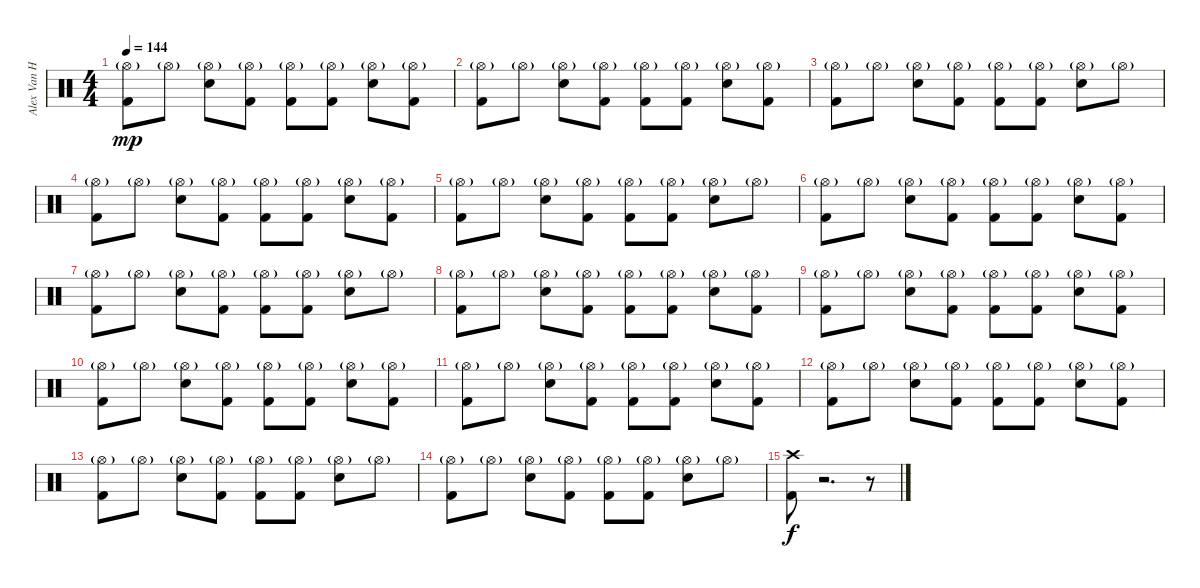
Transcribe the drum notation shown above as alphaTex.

\track ("Alex Van Halen" "Alex Van H") {instrument percussion}
\staff {score}
\articulation defaults
\ts (4 4)
\tempo 144
\clef neutral
\ks c
("Hi-Hat (open)"{g} "Kick (hit) 2").8{dy mp} "Hi-Hat (open)"{g}.8 ("Hi-Hat (open)"{g} "Electric Snare (hit)").8 ("Hi-Hat (open)"{g} "Kick (hit) 2").8 ("Hi-Hat (open)"{g} "Kick (hit) 2").8 ("Hi-Hat (open)"{g} "Kick (hit) 2").8 ("Hi-Hat (open)"{g} "Electric Snare (hit)").8 ("Hi-Hat (open)"{g} "Kick (hit) 2").8 |
("Hi-Hat (open)"{g} "Kick (hit) 2").8 "Hi-Hat (open)"{g}.8 ("Hi-Hat (open)"{g} "Electric Snare (hit)").8 ("Hi-Hat (open)"{g} "Kick (hit) 2").8 ("Hi-Hat (open)"{g} "Kick (hit) 2").8 ("Hi-Hat (open)"{g} "Kick (hit) 2").8 ("Hi-Hat (open)"{g} "Electric Snare (hit)").8 ("Hi-Hat (open)"{g} "Kick (hit) 2").8 |
("Hi-Hat (open)"{g} "Kick (hit) 2").8 "Hi-Hat (open)"{g}.8 ("Hi-Hat (open)"{g} "Electric Snare (hit)").8 ("Hi-Hat (open)"{g} "Kick (hit) 2").8 ("Hi-Hat (open)"{g} "Kick (hit) 2").8 ("Hi-Hat (open)"{g} "Kick (hit) 2").8 ("Hi-Hat (open)"{g} "Electric Snare (hit)").8 "Hi-Hat (open)"{g}.8 |
("Hi-Hat (open)"{g} "Kick (hit) 2").8 "Hi-Hat (open)"{g}.8 ("Hi-Hat (open)"{g} "Electric Snare (hit)").8 ("Hi-Hat (open)"{g} "Kick (hit) 2").8 ("Hi-Hat (open)"{g} "Kick (hit) 2").8 ("Hi-Hat (open)"{g} "Kick (hit) 2").8 ("Hi-Hat (open)"{g} "Electric Snare (hit)").8 ("Hi-Hat (open)"{g} "Kick (hit) 2").8 |
("Hi-Hat (open)"{g} "Kick (hit) 2").8 "Hi-Hat (open)"{g}.8 ("Hi-Hat (open)"{g} "Electric Snare (hit)").8 ("Hi-Hat (open)"{g} "Kick (hit) 2").8 ("Hi-Hat (open)"{g} "Kick (hit) 2").8 ("Hi-Hat (open)"{g} "Kick (hit) 2").8 ("Hi-Hat (open)"{g} "Electric Snare (hit)").8 "Hi-Hat (open)"{g}.8 |
("Hi-Hat (open)"{g} "Kick (hit) 2").8 "Hi-Hat (open)"{g}.8 ("Hi-Hat (open)"{g} "Electric Snare (hit)").8 ("Hi-Hat (open)"{g} "Kick (hit) 2").8 ("Hi-Hat (open)"{g} "Kick (hit) 2").8 ("Hi-Hat (open)"{g} "Kick (hit) 2").8 ("Hi-Hat (open)"{g} "Electric Snare (hit)").8 ("Hi-Hat (open)"{g} "Kick (hit) 2").8 |
("Hi-Hat (open)"{g} "Kick (hit) 2").8 "Hi-Hat (open)"{g}.8 ("Hi-Hat (open)"{g} "Electric Snare (hit)").8 ("Hi-Hat (open)"{g} "Kick (hit) 2").8 ("Hi-Hat (open)"{g} "Kick (hit) 2").8 ("Hi-Hat (open)"{g} "Kick (hit) 2").8 ("Hi-Hat (open)"{g} "Electric Snare (hit)").8 "Hi-Hat (open)"{g}.8 |
("Hi-Hat (open)"{g} "Kick (hit) 2").8 "Hi-Hat (open)"{g}.8 ("Hi-Hat (open)"{g} "Electric Snare (hit)").8 ("Hi-Hat (open)"{g} "Kick (hit) 2").8 ("Hi-Hat (open)"{g} "Kick (hit) 2").8 ("Hi-Hat (open)"{g} "Kick (hit) 2").8 ("Hi-Hat (open)"{g} "Electric Snare (hit)").8 ("Hi-Hat (open)"{g} "Kick (hit) 2").8 |
("Hi-Hat (open)"{g} "Kick (hit) 2").8 "Hi-Hat (open)"{g}.8 ("Hi-Hat (open)"{g} "Electric Snare (hit)").8 ("Hi-Hat (open)"{g} "Kick (hit) 2").8 ("Hi-Hat (open)"{g} "Kick (hit) 2").8 ("Hi-Hat (open)"{g} "Kick (hit) 2").8 ("Hi-Hat (open)"{g} "Electric Snare (hit)").8 ("Hi-Hat (open)"{g} "Kick (hit) 2").8 |
("Hi-Hat (open)"{g} "Kick (hit) 2").8 "Hi-Hat (open)"{g}.8 ("Hi-Hat (open)"{g} "Electric Snare (hit)").8 ("Hi-Hat (open)"{g} "Kick (hit) 2").8 ("Hi-Hat (open)"{g} "Kick (hit) 2").8 ("Hi-Hat (open)"{g} "Kick (hit) 2").8 ("Hi-Hat (open)"{g} "Electric Snare (hit)").8 ("Hi-Hat (open)"{g} "Kick (hit) 2").8 |
("Hi-Hat (open)"{g} "Kick (hit) 2").8 "Hi-Hat (open)"{g}.8 ("Hi-Hat (open)"{g} "Electric Snare (hit)").8 ("Hi-Hat (open)"{g} "Kick (hit) 2").8 ("Hi-Hat (open)"{g} "Kick (hit) 2").8 ("Hi-Hat (open)"{g} "Kick (hit) 2").8 ("Hi-Hat (open)"{g} "Electric Snare (hit)").8 ("Hi-Hat (open)"{g} "Kick (hit) 2").8 |
("Hi-Hat (open)"{g} "Kick (hit) 2").8 "Hi-Hat (open)"{g}.8 ("Hi-Hat (open)"{g} "Electric Snare (hit)").8 ("Hi-Hat (open)"{g} "Kick (hit) 2").8 ("Hi-Hat (open)"{g} "Kick (hit) 2").8 ("Hi-Hat (open)"{g} "Kick (hit) 2").8 ("Hi-Hat (open)"{g} "Electric Snare (hit)").8 ("Hi-Hat (open)"{g} "Kick (hit) 2").8 |
("Hi-Hat (open)"{g} "Kick (hit) 2").8 "Hi-Hat (open)"{g}.8 ("Hi-Hat (open)"{g} "Electric Snare (hit)").8 ("Hi-Hat (open)"{g} "Kick (hit) 2").8 ("Hi-Hat (open)"{g} "Kick (hit) 2").8 ("Hi-Hat (open)"{g} "Kick (hit) 2").8 ("Hi-Hat (open)"{g} "Electric Snare (hit)").8 "Hi-Hat (open)"{g}.8 |
("Hi-Hat (open)"{g} "Kick (hit) 2").8 "Hi-Hat (open)"{g}.8 ("Hi-Hat (open)"{g} "Electric Snare (hit)").8 ("Hi-Hat (open)"{g} "Kick (hit) 2").8 ("Hi-Hat (open)"{g} "Kick (hit) 2").8 ("Hi-Hat (open)"{g} "Kick (hit) 2").8 ("Hi-Hat (open)"{g} "Electric Snare (hit)").8 "Hi-Hat (open)"{g}.8 |
("Crash high (hit)" "Kick (hit) 2").8{dy f} r.2{d} r.8
